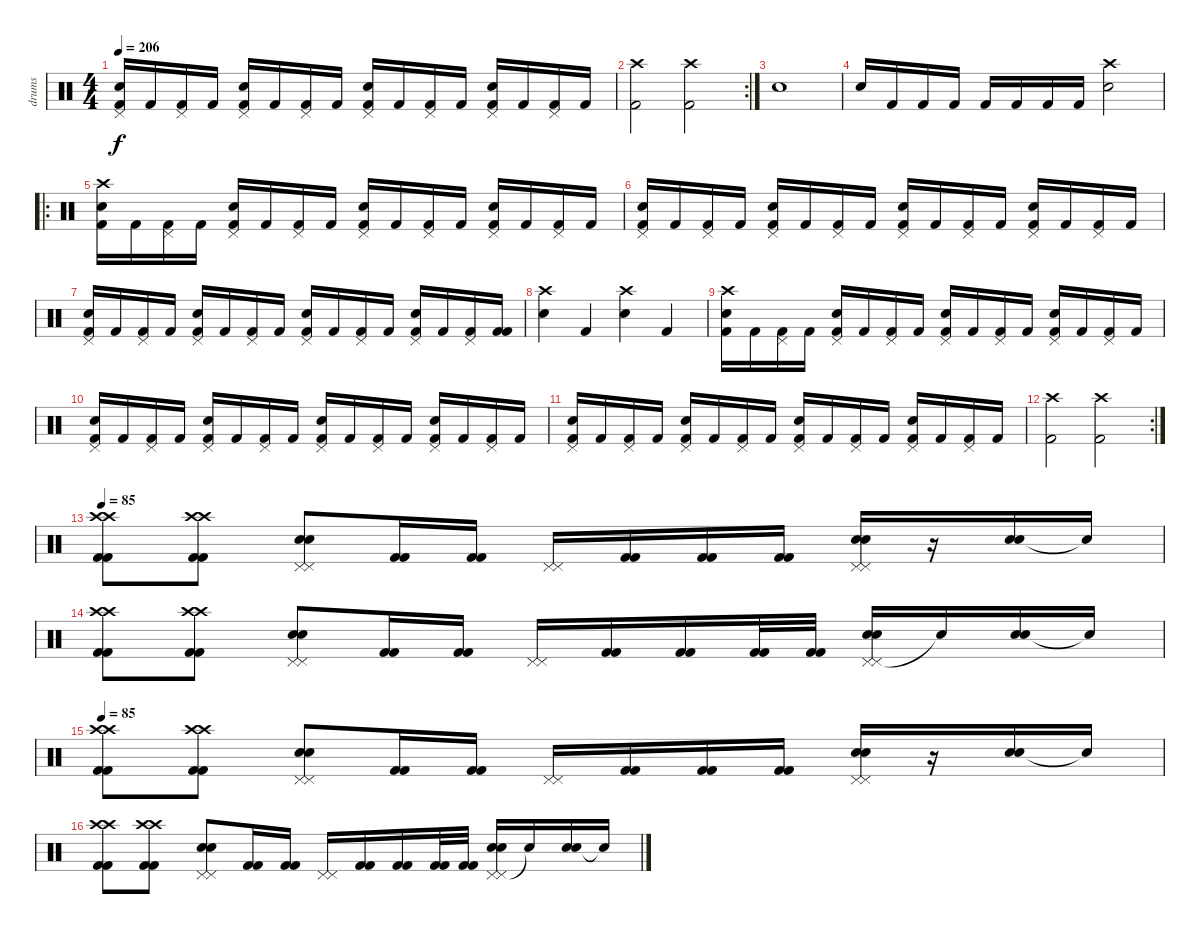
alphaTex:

\track ("drums" "drums") {instrument percussion}
\staff {score}
\articulation defaults
\ts (4 4)
\tempo 206
\clef neutral
\ks c
("Kick (hit) 2" "Electric Snare (hit)" "Pedal Hi-Hat (hit)").16{dy f} "Kick (hit) 2".16 ("Kick (hit) 2" "Pedal Hi-Hat (hit)").16 "Kick (hit) 2".16 ("Kick (hit) 2" "Electric Snare (hit)" "Pedal Hi-Hat (hit)").16 "Kick (hit) 2".16 ("Kick (hit) 2" "Pedal Hi-Hat (hit)").16 "Kick (hit) 2".16 ("Kick (hit) 2" "Electric Snare (hit)" "Pedal Hi-Hat (hit)").16 "Kick (hit) 2".16 ("Kick (hit) 2" "Pedal Hi-Hat (hit)").16 "Kick (hit) 2".16 ("Kick (hit) 2" "Electric Snare (hit)" "Pedal Hi-Hat (hit)").16 "Kick (hit) 2".16 ("Kick (hit) 2" "Pedal Hi-Hat (hit)").16 "Kick (hit) 2".16 |
\rc 2
("Crash high (hit)" "Kick (hit) 2").2 ("Crash high (hit)" "Kick (hit) 2").2 |
"Electric Snare (hit)".1 |
"Electric Snare (hit)".16 "Kick (hit) 2".16 "Kick (hit) 2".16 "Kick (hit) 2".16 "Kick (hit) 2".16 "Kick (hit) 2".16 "Kick (hit) 2".16 "Kick (hit) 2".16 ("Crash high (hit)" "Electric Snare (hit)").2 |
\ro
("Kick (hit) 2" "Electric Snare (hit)" "Crash high (hit)").16 "Kick (hit) 2".16 ("Kick (hit) 2" "Pedal Hi-Hat (hit)").16 "Kick (hit) 2".16 ("Kick (hit) 2" "Electric Snare (hit)" "Pedal Hi-Hat (hit)").16 "Kick (hit) 2".16 ("Kick (hit) 2" "Pedal Hi-Hat (hit)").16 "Kick (hit) 2".16 ("Kick (hit) 2" "Electric Snare (hit)" "Pedal Hi-Hat (hit)").16 "Kick (hit) 2".16 ("Kick (hit) 2" "Pedal Hi-Hat (hit)").16 "Kick (hit) 2".16 ("Kick (hit) 2" "Electric Snare (hit)" "Pedal Hi-Hat (hit)").16 "Kick (hit) 2".16 ("Kick (hit) 2" "Pedal Hi-Hat (hit)").16 "Kick (hit) 2".16 |
("Kick (hit) 2" "Electric Snare (hit)" "Pedal Hi-Hat (hit)").16 "Kick (hit) 2".16 ("Kick (hit) 2" "Pedal Hi-Hat (hit)").16 "Kick (hit) 2".16 ("Kick (hit) 2" "Electric Snare (hit)" "Pedal Hi-Hat (hit)").16 "Kick (hit) 2".16 ("Kick (hit) 2" "Pedal Hi-Hat (hit)").16 "Kick (hit) 2".16 ("Kick (hit) 2" "Electric Snare (hit)" "Pedal Hi-Hat (hit)").16 "Kick (hit) 2".16 ("Kick (hit) 2" "Pedal Hi-Hat (hit)").16 "Kick (hit) 2".16 ("Kick (hit) 2" "Electric Snare (hit)" "Pedal Hi-Hat (hit)").16 "Kick (hit) 2".16 ("Kick (hit) 2" "Pedal Hi-Hat (hit)").16 "Kick (hit) 2".16 |
("Kick (hit) 2" "Electric Snare (hit)" "Pedal Hi-Hat (hit)").16 "Kick (hit) 2".16 ("Kick (hit) 2" "Pedal Hi-Hat (hit)").16 "Kick (hit) 2".16 ("Kick (hit) 2" "Electric Snare (hit)" "Pedal Hi-Hat (hit)").16 "Kick (hit) 2".16 ("Kick (hit) 2" "Pedal Hi-Hat (hit)").16 "Kick (hit) 2".16 ("Kick (hit) 2" "Electric Snare (hit)" "Pedal Hi-Hat (hit)").16 "Kick (hit) 2".16 ("Kick (hit) 2" "Pedal Hi-Hat (hit)").16 "Kick (hit) 2".16 ("Kick (hit) 2" "Electric Snare (hit)" "Pedal Hi-Hat (hit)").16 "Kick (hit) 2".16 ("Kick (hit) 2" "Pedal Hi-Hat (hit)").16 ("Kick (hit) 2" "Kick (hit) 2").16 |
("Electric Snare (hit)" "Crash high (hit)").4 "Kick (hit) 2".4 ("Electric Snare (hit)" "Crash high (hit)").4 "Kick (hit) 2".4 |
("Kick (hit) 2" "Electric Snare (hit)" "Crash high (hit)").16 "Kick (hit) 2".16 ("Kick (hit) 2" "Pedal Hi-Hat (hit)").16 "Kick (hit) 2".16 ("Kick (hit) 2" "Electric Snare (hit)" "Pedal Hi-Hat (hit)").16 "Kick (hit) 2".16 ("Kick (hit) 2" "Pedal Hi-Hat (hit)").16 "Kick (hit) 2".16 ("Kick (hit) 2" "Electric Snare (hit)" "Pedal Hi-Hat (hit)").16 "Kick (hit) 2".16 ("Kick (hit) 2" "Pedal Hi-Hat (hit)").16 "Kick (hit) 2".16 ("Kick (hit) 2" "Electric Snare (hit)" "Pedal Hi-Hat (hit)").16 "Kick (hit) 2".16 ("Kick (hit) 2" "Pedal Hi-Hat (hit)").16 "Kick (hit) 2".16 |
("Kick (hit) 2" "Electric Snare (hit)" "Pedal Hi-Hat (hit)").16 "Kick (hit) 2".16 ("Kick (hit) 2" "Pedal Hi-Hat (hit)").16 "Kick (hit) 2".16 ("Kick (hit) 2" "Electric Snare (hit)" "Pedal Hi-Hat (hit)").16 "Kick (hit) 2".16 ("Kick (hit) 2" "Pedal Hi-Hat (hit)").16 "Kick (hit) 2".16 ("Kick (hit) 2" "Electric Snare (hit)" "Pedal Hi-Hat (hit)").16 "Kick (hit) 2".16 ("Kick (hit) 2" "Pedal Hi-Hat (hit)").16 "Kick (hit) 2".16 ("Kick (hit) 2" "Electric Snare (hit)" "Pedal Hi-Hat (hit)").16 "Kick (hit) 2".16 ("Kick (hit) 2" "Pedal Hi-Hat (hit)").16 "Kick (hit) 2".16 |
("Kick (hit) 2" "Electric Snare (hit)" "Pedal Hi-Hat (hit)").16 "Kick (hit) 2".16 ("Kick (hit) 2" "Pedal Hi-Hat (hit)").16 "Kick (hit) 2".16 ("Kick (hit) 2" "Electric Snare (hit)" "Pedal Hi-Hat (hit)").16 "Kick (hit) 2".16 ("Kick (hit) 2" "Pedal Hi-Hat (hit)").16 "Kick (hit) 2".16 ("Kick (hit) 2" "Electric Snare (hit)" "Pedal Hi-Hat (hit)").16 "Kick (hit) 2".16 ("Kick (hit) 2" "Pedal Hi-Hat (hit)").16 "Kick (hit) 2".16 ("Kick (hit) 2" "Electric Snare (hit)" "Pedal Hi-Hat (hit)").16 "Kick (hit) 2".16 ("Kick (hit) 2" "Pedal Hi-Hat (hit)").16 "Kick (hit) 2".16 |
\rc 2
("Crash high (hit)" "Kick (hit) 2").2 ("Crash high (hit)" "Kick (hit) 2").2 |
\tempo 85
("Crash high (hit)" "Crash high (hit)" "Kick (hit) 2" "Kick (hit) 2").8 ("Crash high (hit)" "Crash high (hit)" "Kick (hit) 2" "Kick (hit) 2").8 ("Pedal Hi-Hat (hit)" "Pedal Hi-Hat (hit)" "Electric Snare (hit)" "Electric Snare (hit)").8 ("Kick (hit) 2" "Kick (hit) 2").16 ("Kick (hit) 2" "Kick (hit) 2").16 ("Pedal Hi-Hat (hit)" "Pedal Hi-Hat (hit)").16 ("Kick (hit) 2" "Kick (hit) 2").16 ("Kick (hit) 2" "Kick (hit) 2").16 ("Kick (hit) 2" "Kick (hit) 2").16 ("Pedal Hi-Hat (hit)" "Pedal Hi-Hat (hit)" "Electric Snare (hit)" "Electric Snare (hit)").16 r.16 ("Electric Snare (hit)" "Electric Snare (hit)").16 "Snare (hit)"{t}.16 |
("Crash high (hit)" "Crash high (hit)" "Kick (hit) 2" "Kick (hit) 2").8 ("Crash high (hit)" "Crash high (hit)" "Kick (hit) 2" "Kick (hit) 2").8 ("Pedal Hi-Hat (hit)" "Pedal Hi-Hat (hit)" "Electric Snare (hit)" "Electric Snare (hit)").8 ("Kick (hit) 2" "Kick (hit) 2").16 ("Kick (hit) 2" "Kick (hit) 2").16 ("Pedal Hi-Hat (hit)" "Pedal Hi-Hat (hit)").16 ("Kick (hit) 2" "Kick (hit) 2").16 ("Kick (hit) 2" "Kick (hit) 2").16 ("Kick (hit) 2" "Kick (hit) 2").32 ("Kick (hit) 2" "Kick (hit) 2").32 ("Pedal Hi-Hat (hit)" "Pedal Hi-Hat (hit)" "Electric Snare (hit)" "Electric Snare (hit)").16 "Snare (hit)"{t}.16 ("Electric Snare (hit)" "Electric Snare (hit)").16 "Snare (hit)"{t}.16 |
\tempo 85
("Crash high (hit)" "Crash high (hit)" "Kick (hit) 2" "Kick (hit) 2").8 ("Crash high (hit)" "Crash high (hit)" "Kick (hit) 2" "Kick (hit) 2").8 ("Pedal Hi-Hat (hit)" "Pedal Hi-Hat (hit)" "Electric Snare (hit)" "Electric Snare (hit)").8 ("Kick (hit) 2" "Kick (hit) 2").16 ("Kick (hit) 2" "Kick (hit) 2").16 ("Pedal Hi-Hat (hit)" "Pedal Hi-Hat (hit)").16 ("Kick (hit) 2" "Kick (hit) 2").16 ("Kick (hit) 2" "Kick (hit) 2").16 ("Kick (hit) 2" "Kick (hit) 2").16 ("Pedal Hi-Hat (hit)" "Pedal Hi-Hat (hit)" "Electric Snare (hit)" "Electric Snare (hit)").16 r.16 ("Electric Snare (hit)" "Electric Snare (hit)").16 "Snare (hit)"{t}.16 |
("Crash high (hit)" "Crash high (hit)" "Kick (hit) 2" "Kick (hit) 2").8 ("Crash high (hit)" "Crash high (hit)" "Kick (hit) 2" "Kick (hit) 2").8 ("Pedal Hi-Hat (hit)" "Pedal Hi-Hat (hit)" "Electric Snare (hit)" "Electric Snare (hit)").8 ("Kick (hit) 2" "Kick (hit) 2").16 ("Kick (hit) 2" "Kick (hit) 2").16 ("Pedal Hi-Hat (hit)" "Pedal Hi-Hat (hit)").16 ("Kick (hit) 2" "Kick (hit) 2").16 ("Kick (hit) 2" "Kick (hit) 2").16 ("Kick (hit) 2" "Kick (hit) 2").32 ("Kick (hit) 2" "Kick (hit) 2").32 ("Pedal Hi-Hat (hit)" "Pedal Hi-Hat (hit)" "Electric Snare (hit)" "Electric Snare (hit)").16 "Snare (hit)"{t}.16 ("Electric Snare (hit)" "Electric Snare (hit)").16 "Snare (hit)"{t}.16
